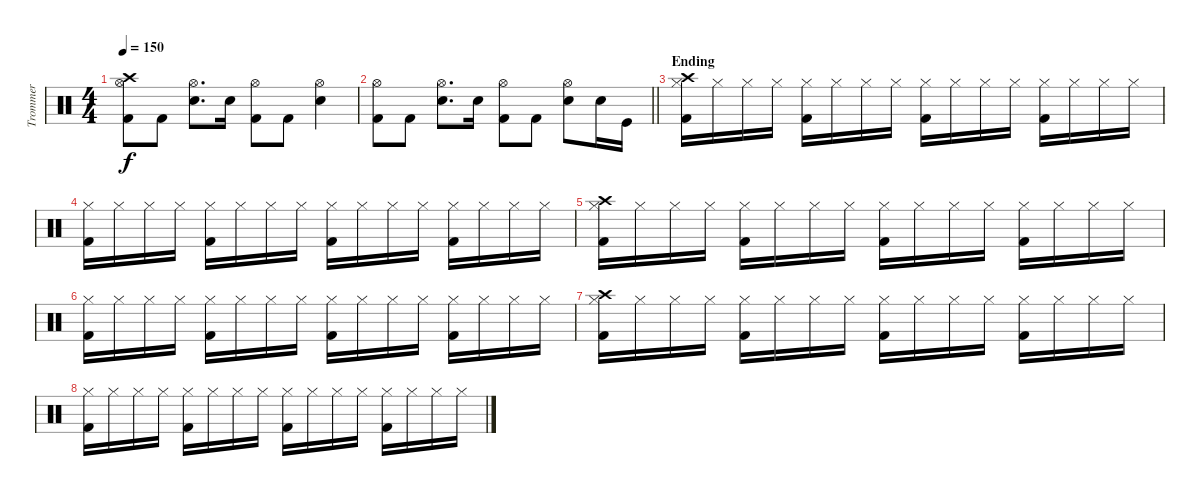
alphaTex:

\track ("Trommer" "Trommer") {instrument percussion}
\staff {score}
\articulation defaults
\ts (4 4)
\tempo 150
\clef neutral
\ks c
("Kick (hit) 2" "Hi-Hat (open)" "Crash high (hit)").8{dy f} "Kick (hit) 2".8 ("Electric Snare (hit)" "Hi-Hat (open)").8{d} "Electric Snare (hit)".16 ("Kick (hit) 2" "Hi-Hat (open)").8 "Kick (hit) 2".8 ("Electric Snare (hit)" "Hi-Hat (open)").4 |
\barLineRight lightlight
("Kick (hit) 2" "Hi-Hat (open)").8 "Kick (hit) 2".8 ("Electric Snare (hit)" "Hi-Hat (open)").8{d} "Electric Snare (hit)".16 ("Kick (hit) 2" "Hi-Hat (open)").8 "Kick (hit) 2".8 ("Electric Snare (hit)" "Hi-Hat (open)").8 "Electric Snare (hit)".16 "Kick (hit)".16 |
\section ("" "Ending")
("Hi-Hat (closed)" "Kick (hit) 2" "Crash high (hit)").16 "Hi-Hat (closed)".16 "Hi-Hat (closed)".16 "Hi-Hat (closed)".16 ("Hi-Hat (closed)" "Kick (hit) 2").16 "Hi-Hat (closed)".16 "Hi-Hat (closed)".16 "Hi-Hat (closed)".16 ("Hi-Hat (closed)" "Kick (hit) 2").16 "Hi-Hat (closed)".16 "Hi-Hat (closed)".16 "Hi-Hat (closed)".16 ("Hi-Hat (closed)" "Kick (hit) 2").16 "Hi-Hat (closed)".16 "Hi-Hat (closed)".16 "Hi-Hat (closed)".16 |
("Hi-Hat (closed)" "Kick (hit) 2").16 "Hi-Hat (closed)".16 "Hi-Hat (closed)".16 "Hi-Hat (closed)".16 ("Hi-Hat (closed)" "Kick (hit) 2").16 "Hi-Hat (closed)".16 "Hi-Hat (closed)".16 "Hi-Hat (closed)".16 ("Hi-Hat (closed)" "Kick (hit) 2").16 "Hi-Hat (closed)".16 "Hi-Hat (closed)".16 "Hi-Hat (closed)".16 ("Hi-Hat (closed)" "Kick (hit) 2").16 "Hi-Hat (closed)".16 "Hi-Hat (closed)".16 "Hi-Hat (closed)".16 |
("Hi-Hat (closed)" "Kick (hit) 2" "Crash high (hit)").16 "Hi-Hat (closed)".16 "Hi-Hat (closed)".16 "Hi-Hat (closed)".16 ("Hi-Hat (closed)" "Kick (hit) 2").16 "Hi-Hat (closed)".16 "Hi-Hat (closed)".16 "Hi-Hat (closed)".16 ("Hi-Hat (closed)" "Kick (hit) 2").16 "Hi-Hat (closed)".16 "Hi-Hat (closed)".16 "Hi-Hat (closed)".16 ("Hi-Hat (closed)" "Kick (hit) 2").16 "Hi-Hat (closed)".16 "Hi-Hat (closed)".16 "Hi-Hat (closed)".16 |
("Hi-Hat (closed)" "Kick (hit) 2").16 "Hi-Hat (closed)".16 "Hi-Hat (closed)".16 "Hi-Hat (closed)".16 ("Hi-Hat (closed)" "Kick (hit) 2").16 "Hi-Hat (closed)".16 "Hi-Hat (closed)".16 "Hi-Hat (closed)".16 ("Hi-Hat (closed)" "Kick (hit) 2").16 "Hi-Hat (closed)".16 "Hi-Hat (closed)".16 "Hi-Hat (closed)".16 ("Hi-Hat (closed)" "Kick (hit) 2").16 "Hi-Hat (closed)".16 "Hi-Hat (closed)".16 "Hi-Hat (closed)".16 |
("Hi-Hat (closed)" "Kick (hit) 2" "Crash high (hit)").16 "Hi-Hat (closed)".16 "Hi-Hat (closed)".16 "Hi-Hat (closed)".16 ("Hi-Hat (closed)" "Kick (hit) 2").16 "Hi-Hat (closed)".16 "Hi-Hat (closed)".16 "Hi-Hat (closed)".16 ("Hi-Hat (closed)" "Kick (hit) 2").16 "Hi-Hat (closed)".16 "Hi-Hat (closed)".16 "Hi-Hat (closed)".16 ("Hi-Hat (closed)" "Kick (hit) 2").16 "Hi-Hat (closed)".16 "Hi-Hat (closed)".16 "Hi-Hat (closed)".16 |
("Hi-Hat (closed)" "Kick (hit) 2").16 "Hi-Hat (closed)".16 "Hi-Hat (closed)".16 "Hi-Hat (closed)".16 ("Hi-Hat (closed)" "Kick (hit) 2").16 "Hi-Hat (closed)".16 "Hi-Hat (closed)".16 "Hi-Hat (closed)".16 ("Hi-Hat (closed)" "Kick (hit) 2").16 "Hi-Hat (closed)".16 "Hi-Hat (closed)".16 "Hi-Hat (closed)".16 ("Hi-Hat (closed)" "Kick (hit) 2").16 "Hi-Hat (closed)".16 "Hi-Hat (closed)".16 "Hi-Hat (closed)".16
